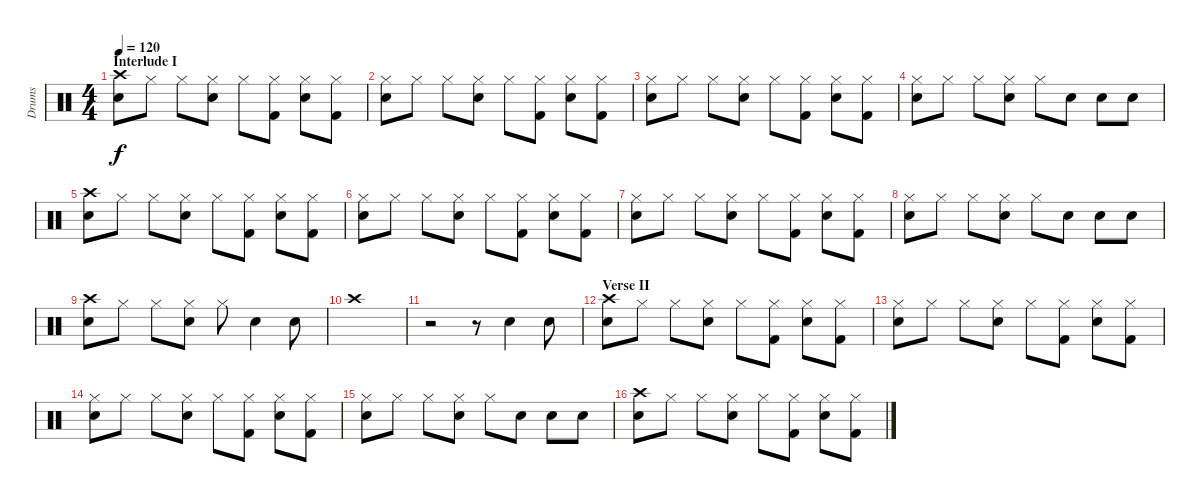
\track ("Drums" "Drums") {instrument percussion}
\staff {score}
\articulation defaults
\ts (4 4)
\section ("" "Interlude I")
\tempo 120
\clef neutral
\ks c
("Crash high (hit)" "Snare (hit) 2").8{dy f} "Hi-Hat (closed)".8 "Hi-Hat (closed)".8 ("Hi-Hat (closed)" "Snare (hit) 2").8 "Hi-Hat (closed)".8 ("Hi-Hat (closed)" "Kick (hit) 2").8 ("Hi-Hat (closed)" "Snare (hit) 2").8 ("Hi-Hat (closed)" "Kick (hit) 2").8 |
("Hi-Hat (closed)" "Snare (hit) 2").8 "Hi-Hat (closed)".8 "Hi-Hat (closed)".8 ("Hi-Hat (closed)" "Snare (hit) 2").8 "Hi-Hat (closed)".8 ("Hi-Hat (closed)" "Kick (hit) 2").8 ("Hi-Hat (closed)" "Snare (hit) 2").8 ("Hi-Hat (closed)" "Kick (hit) 2").8 |
("Hi-Hat (closed)" "Snare (hit) 2").8 "Hi-Hat (closed)".8 "Hi-Hat (closed)".8 ("Hi-Hat (closed)" "Snare (hit) 2").8 "Hi-Hat (closed)".8 ("Hi-Hat (closed)" "Kick (hit) 2").8 ("Hi-Hat (closed)" "Snare (hit) 2").8 ("Hi-Hat (closed)" "Kick (hit) 2").8 |
("Hi-Hat (closed)" "Snare (hit) 2").8 "Hi-Hat (closed)".8 "Hi-Hat (closed)".8 ("Hi-Hat (closed)" "Snare (hit) 2").8 "Hi-Hat (closed)".8 "Snare (hit) 2".8 "Snare (hit) 2".8 "Snare (hit) 2".8 |
("Crash high (hit)" "Snare (hit) 2").8 "Hi-Hat (closed)".8 "Hi-Hat (closed)".8 ("Hi-Hat (closed)" "Snare (hit) 2").8 "Hi-Hat (closed)".8 ("Hi-Hat (closed)" "Kick (hit) 2").8 ("Hi-Hat (closed)" "Snare (hit) 2").8 ("Hi-Hat (closed)" "Kick (hit) 2").8 |
("Hi-Hat (closed)" "Snare (hit) 2").8 "Hi-Hat (closed)".8 "Hi-Hat (closed)".8 ("Hi-Hat (closed)" "Snare (hit) 2").8 "Hi-Hat (closed)".8 ("Hi-Hat (closed)" "Kick (hit) 2").8 ("Hi-Hat (closed)" "Snare (hit) 2").8 ("Hi-Hat (closed)" "Kick (hit) 2").8 |
("Hi-Hat (closed)" "Snare (hit) 2").8 "Hi-Hat (closed)".8 "Hi-Hat (closed)".8 ("Hi-Hat (closed)" "Snare (hit) 2").8 "Hi-Hat (closed)".8 ("Hi-Hat (closed)" "Kick (hit) 2").8 ("Hi-Hat (closed)" "Snare (hit) 2").8 ("Hi-Hat (closed)" "Kick (hit) 2").8 |
("Hi-Hat (closed)" "Snare (hit) 2").8 "Hi-Hat (closed)".8 "Hi-Hat (closed)".8 ("Hi-Hat (closed)" "Snare (hit) 2").8 "Hi-Hat (closed)".8 "Snare (hit) 2".8 "Snare (hit) 2".8 "Snare (hit) 2".8 |
("Crash high (hit)" "Snare (hit) 2").8 "Hi-Hat (closed)".8 "Hi-Hat (closed)".8 ("Hi-Hat (closed)" "Snare (hit) 2").8 "Hi-Hat (closed)".8 "Snare (hit) 2".4 "Snare (hit) 2".8 |
"Crash high (hit)".1 |
r.2 r.8 "Snare (hit) 2".4 "Snare (hit) 2".8 |
\section ("" "Verse II")
("Crash high (hit)" "Snare (hit) 2").8 "Hi-Hat (closed)".8 "Hi-Hat (closed)".8 ("Hi-Hat (closed)" "Snare (hit) 2").8 "Hi-Hat (closed)".8 ("Hi-Hat (closed)" "Kick (hit) 2").8 ("Hi-Hat (closed)" "Snare (hit) 2").8 ("Hi-Hat (closed)" "Kick (hit) 2").8 |
("Hi-Hat (closed)" "Snare (hit) 2").8 "Hi-Hat (closed)".8 "Hi-Hat (closed)".8 ("Hi-Hat (closed)" "Snare (hit) 2").8 "Hi-Hat (closed)".8 ("Hi-Hat (closed)" "Kick (hit) 2").8 ("Hi-Hat (closed)" "Snare (hit) 2").8 ("Hi-Hat (closed)" "Kick (hit) 2").8 |
("Hi-Hat (closed)" "Snare (hit) 2").8 "Hi-Hat (closed)".8 "Hi-Hat (closed)".8 ("Hi-Hat (closed)" "Snare (hit) 2").8 "Hi-Hat (closed)".8 ("Hi-Hat (closed)" "Kick (hit) 2").8 ("Hi-Hat (closed)" "Snare (hit) 2").8 ("Hi-Hat (closed)" "Kick (hit) 2").8 |
("Hi-Hat (closed)" "Snare (hit) 2").8 "Hi-Hat (closed)".8 "Hi-Hat (closed)".8 ("Hi-Hat (closed)" "Snare (hit) 2").8 "Hi-Hat (closed)".8 "Snare (hit) 2".8 "Snare (hit) 2".8 "Snare (hit) 2".8 |
("Crash high (hit)" "Snare (hit) 2").8 "Hi-Hat (closed)".8 "Hi-Hat (closed)".8 ("Hi-Hat (closed)" "Snare (hit) 2").8 "Hi-Hat (closed)".8 ("Hi-Hat (closed)" "Kick (hit) 2").8 ("Hi-Hat (closed)" "Snare (hit) 2").8 ("Hi-Hat (closed)" "Kick (hit) 2").8
